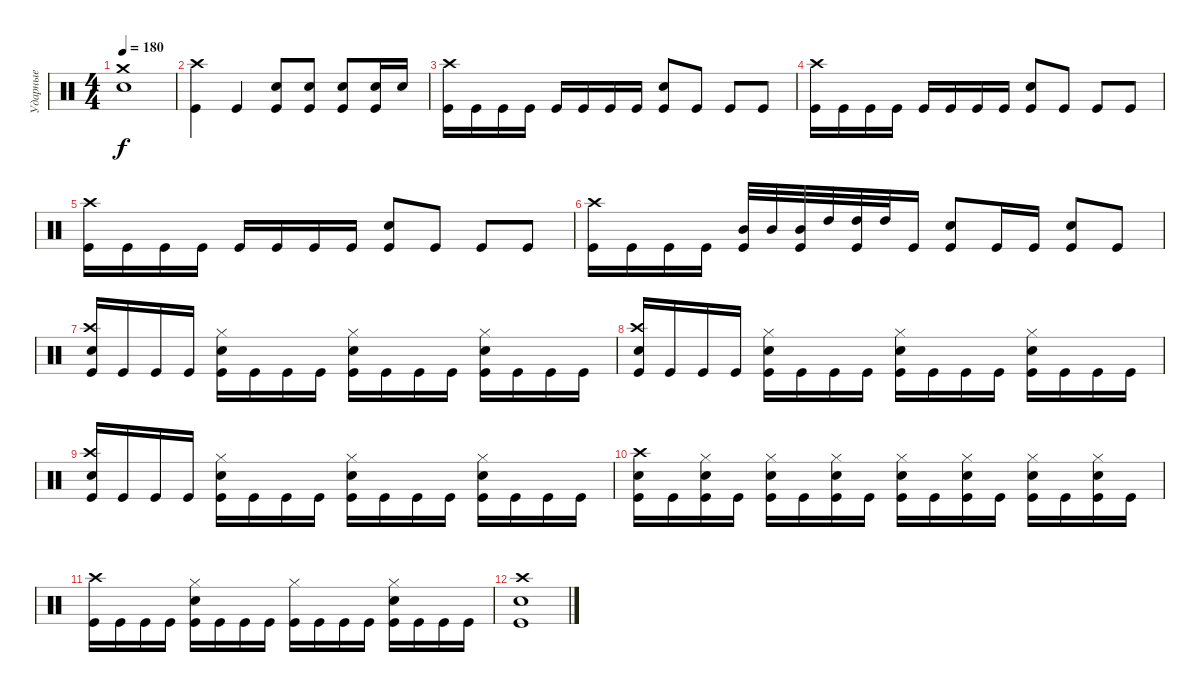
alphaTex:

\track ("Ударные" "Ударные") {instrument percussion}
\staff {score}
\articulation defaults
\ts (4 4)
\tempo 180
\clef neutral
\ks c
("Crash medium (hit)" "Electric Snare (hit)").1{dy f} |
("Crash high (hit)" "Kick (hit)").4 "Kick (hit)".4 ("Electric Snare (hit)" "Kick (hit)").8 ("Electric Snare (hit)" "Kick (hit)").8 ("Electric Snare (hit)" "Kick (hit)").8 ("Electric Snare (hit)" "Kick (hit)").16 "Electric Snare (hit)".16 |
("Crash high (hit)" "Kick (hit)").16 "Kick (hit)".16 "Kick (hit)".16 "Kick (hit)".16 "Kick (hit)".16 "Kick (hit)".16 "Kick (hit)".16 "Kick (hit)".16 ("Electric Snare (hit)" "Kick (hit)").8 "Kick (hit)".8 "Kick (hit)".8 "Kick (hit)".8 |
("Crash high (hit)" "Kick (hit)").16 "Kick (hit)".16 "Kick (hit)".16 "Kick (hit)".16 "Kick (hit)".16 "Kick (hit)".16 "Kick (hit)".16 "Kick (hit)".16 ("Electric Snare (hit)" "Kick (hit)").8 "Kick (hit)".8 "Kick (hit)".8 "Kick (hit)".8 |
("Crash high (hit)" "Kick (hit)").16 "Kick (hit)".16 "Kick (hit)".16 "Kick (hit)".16 "Kick (hit)".16 "Kick (hit)".16 "Kick (hit)".16 "Kick (hit)".16 ("Electric Snare (hit)" "Kick (hit)").8 "Kick (hit)".8 "Kick (hit)".8 "Kick (hit)".8 |
("Crash high (hit)" "Kick (hit)").16 "Kick (hit)".16 "Kick (hit)".16 "Kick (hit)".16 ("Mid Tom (hit)" "Kick (hit)").32 "Mid Tom (hit)".32 ("Mid Tom (hit)" "Kick (hit)").32 "High Tom (hit)".32 ("High Tom (hit)" "Kick (hit)").32 "High Tom (hit)".32 "Kick (hit)".16 ("Electric Snare (hit)" "Kick (hit)").8 "Kick (hit)".16 "Kick (hit)".16 ("Electric Snare (hit)" "Kick (hit)").8 "Kick (hit)".8 |
("Crash high (hit)" "Electric Snare (hit)" "Kick (hit)").16 "Kick (hit)".16 "Kick (hit)".16 "Kick (hit)".16 ("Hi-Hat (closed)" "Electric Snare (hit)" "Kick (hit)").16 "Kick (hit)".16 "Kick (hit)".16 "Kick (hit)".16 ("Hi-Hat (closed)" "Electric Snare (hit)" "Kick (hit)").16 "Kick (hit)".16 "Kick (hit)".16 "Kick (hit)".16 ("Hi-Hat (closed)" "Electric Snare (hit)" "Kick (hit)").16 "Kick (hit)".16 "Kick (hit)".16 "Kick (hit)".16 |
("Crash high (hit)" "Electric Snare (hit)" "Kick (hit)").16 "Kick (hit)".16 "Kick (hit)".16 "Kick (hit)".16 ("Hi-Hat (closed)" "Electric Snare (hit)" "Kick (hit)").16 "Kick (hit)".16 "Kick (hit)".16 "Kick (hit)".16 ("Hi-Hat (closed)" "Electric Snare (hit)" "Kick (hit)").16 "Kick (hit)".16 "Kick (hit)".16 "Kick (hit)".16 ("Hi-Hat (closed)" "Electric Snare (hit)" "Kick (hit)").16 "Kick (hit)".16 "Kick (hit)".16 "Kick (hit)".16 |
("Crash high (hit)" "Electric Snare (hit)" "Kick (hit)").16 "Kick (hit)".16 "Kick (hit)".16 "Kick (hit)".16 ("Hi-Hat (closed)" "Electric Snare (hit)" "Kick (hit)").16 "Kick (hit)".16 "Kick (hit)".16 "Kick (hit)".16 ("Hi-Hat (closed)" "Electric Snare (hit)" "Kick (hit)").16 "Kick (hit)".16 "Kick (hit)".16 "Kick (hit)".16 ("Hi-Hat (closed)" "Electric Snare (hit)" "Kick (hit)").16 "Kick (hit)".16 "Kick (hit)".16 "Kick (hit)".16 |
("Crash high (hit)" "Electric Snare (hit)" "Kick (hit)").16 "Kick (hit)".16 ("Hi-Hat (closed)" "Electric Snare (hit)" "Kick (hit)").16 "Kick (hit)".16 ("Hi-Hat (closed)" "Electric Snare (hit)" "Kick (hit)").16 "Kick (hit)".16 ("Hi-Hat (closed)" "Electric Snare (hit)" "Kick (hit)").16 "Kick (hit)".16 ("Hi-Hat (closed)" "Electric Snare (hit)" "Kick (hit)").16 "Kick (hit)".16 ("Hi-Hat (closed)" "Electric Snare (hit)" "Kick (hit)").16 "Kick (hit)".16 ("Hi-Hat (closed)" "Electric Snare (hit)" "Kick (hit)").16 "Kick (hit)".16 ("Hi-Hat (closed)" "Electric Snare (hit)" "Kick (hit)").16 "Kick (hit)".16 |
("Crash high (hit)" "Kick (hit)").16 "Kick (hit)".16 "Kick (hit)".16 "Kick (hit)".16 ("Hi-Hat (closed)" "Electric Snare (hit)" "Kick (hit)").16 "Kick (hit)".16 "Kick (hit)".16 "Kick (hit)".16 ("Hi-Hat (closed)" "Kick (hit)").16 "Kick (hit)".16 "Kick (hit)".16 "Kick (hit)".16 ("Hi-Hat (closed)" "Electric Snare (hit)" "Kick (hit)").16 "Kick (hit)".16 "Kick (hit)".16 "Kick (hit)".16 |
("Crash high (hit)" "Electric Snare (hit)" "Kick (hit)").1
